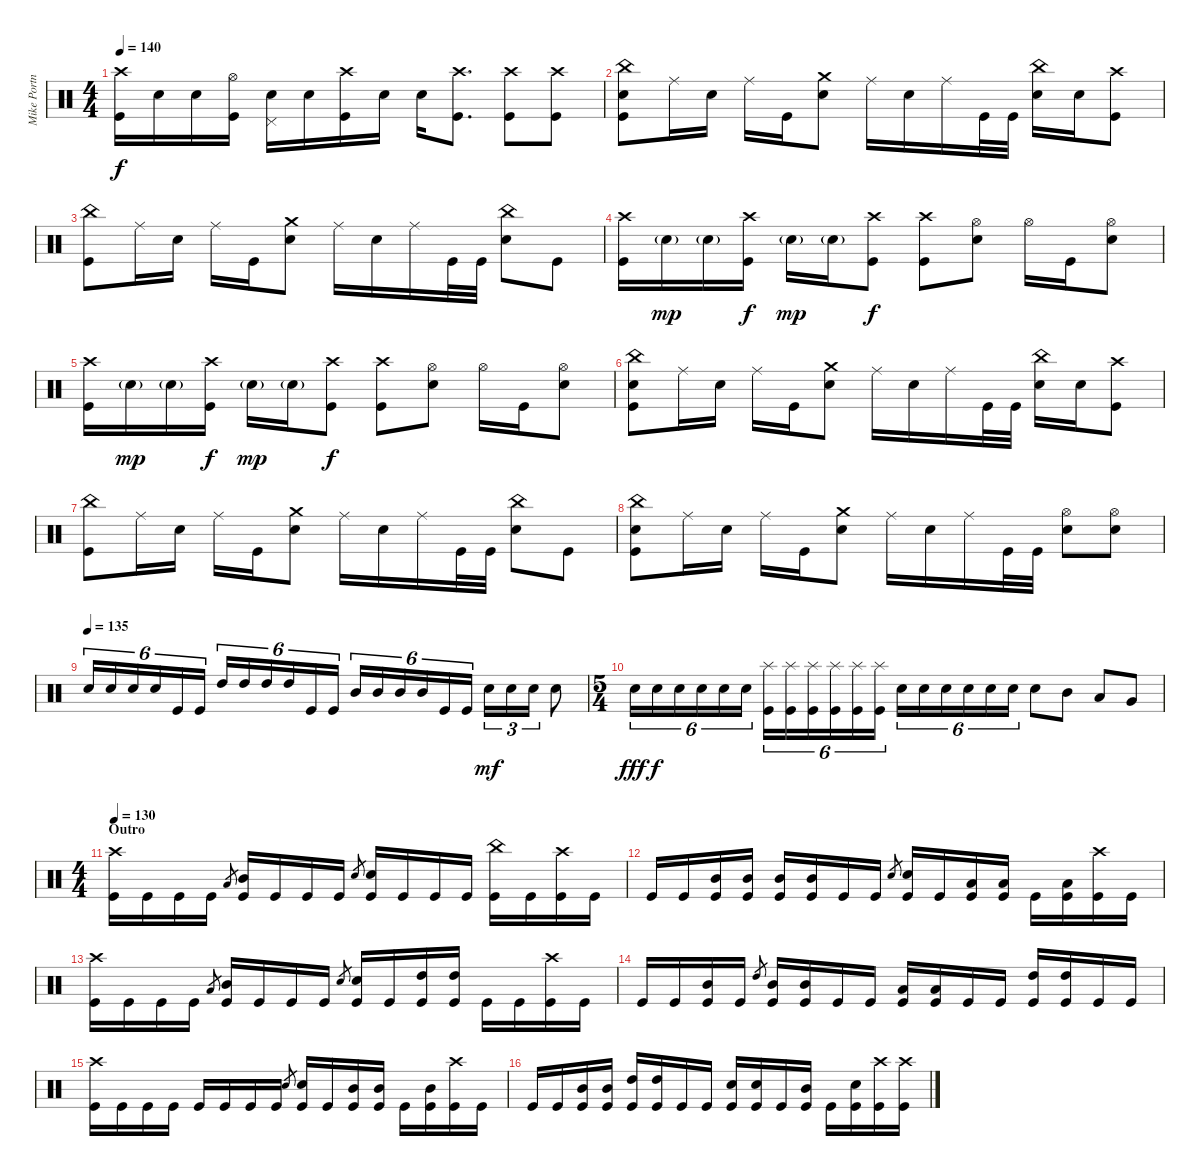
\track ("Mike Portnoy" "Mike Portn") {instrument percussion}
\staff {score}
\articulation defaults
\ts (4 4)
\tempo 140
\clef neutral
\ks c
("Crash high (hit)" "Kick (hit)").16{dy f} "Electric Snare (hit)".16 "Electric Snare (hit)".16 ("Hi-Hat (open)" "Kick (hit)").16 ("Electric Snare (hit)" "Pedal Hi-Hat (hit)").16 "Electric Snare (hit)".16 ("Crash high (hit)" "Kick (hit)").16 "Electric Snare (hit)".16 "Electric Snare (hit)".16 ("Crash high (hit)" "Kick (hit)").8{d} ("Crash high (hit)" "Kick (hit)").8 ("Crash high (hit)" "Kick (hit)").8 |
("China (hit)" "Electric Snare (hit)" "Kick (hit)").8 "Ride (middle)".16 "Electric Snare (hit)".16 "Ride (middle)".16 "Kick (hit)".16 ("Crash medium (hit)" "Electric Snare (hit)").8 "Ride (middle)".16 "Electric Snare (hit)".16 "Ride (middle)".16 "Kick (hit)".32 "Kick (hit)".32 ("China (hit)" "Electric Snare (hit)").16 "Electric Snare (hit)".16 ("Crash high (hit)" "Kick (hit)").8 |
("China (hit)" "Kick (hit)").8 "Ride (middle)".16 "Electric Snare (hit)".16 "Ride (middle)".16 "Kick (hit)".16 ("Crash medium (hit)" "Electric Snare (hit)").8 "Ride (middle)".16 "Electric Snare (hit)".16 "Ride (middle)".16 "Kick (hit)".32 "Kick (hit)".32 ("China (hit)" "Electric Snare (hit)").8 "Kick (hit)".8 |
("Crash high (hit)" "Kick (hit)").16 "Electric Snare (hit)"{g}.16{dy mp} "Electric Snare (hit)"{g}.16 ("Crash high (hit)" "Kick (hit)").16{dy f} "Electric Snare (hit)"{g}.16{dy mp} "Electric Snare (hit)"{g}.16 ("Crash high (hit)" "Kick (hit)").8{dy f} ("Crash high (hit)" "Kick (hit)").8 ("Hi-Hat (open)" "Electric Snare (hit)").8 "Hi-Hat (open)".16 "Kick (hit)".16 ("Hi-Hat (open)" "Electric Snare (hit)").8 |
("Crash high (hit)" "Kick (hit)").16 "Electric Snare (hit)"{g}.16{dy mp} "Electric Snare (hit)"{g}.16 ("Crash high (hit)" "Kick (hit)").16{dy f} "Electric Snare (hit)"{g}.16{dy mp} "Electric Snare (hit)"{g}.16 ("Crash high (hit)" "Kick (hit)").8{dy f} ("Crash high (hit)" "Kick (hit)").8 ("Hi-Hat (open)" "Electric Snare (hit)").8 "Hi-Hat (open)".16 "Kick (hit)".16 ("Hi-Hat (open)" "Electric Snare (hit)").8 |
("China (hit)" "Electric Snare (hit)" "Kick (hit)").8 "Ride (middle)".16 "Electric Snare (hit)".16 "Ride (middle)".16 "Kick (hit)".16 ("Crash medium (hit)" "Electric Snare (hit)").8 "Ride (middle)".16 "Electric Snare (hit)".16 "Ride (middle)".16 "Kick (hit)".32 "Kick (hit)".32 ("China (hit)" "Electric Snare (hit)").16 "Electric Snare (hit)".16 ("Crash high (hit)" "Kick (hit)").8 |
("China (hit)" "Kick (hit)").8 "Ride (middle)".16 "Electric Snare (hit)".16 "Ride (middle)".16 "Kick (hit)".16 ("Crash medium (hit)" "Electric Snare (hit)").8 "Ride (middle)".16 "Electric Snare (hit)".16 "Ride (middle)".16 "Kick (hit)".32 "Kick (hit)".32 ("China (hit)" "Electric Snare (hit)").8 "Kick (hit)".8 |
("China (hit)" "Electric Snare (hit)" "Kick (hit)").8 "Ride (middle)".16 "Electric Snare (hit)".16 "Ride (middle)".16 "Kick (hit)".16 ("Crash medium (hit)" "Electric Snare (hit)").8 "Ride (middle)".16 "Electric Snare (hit)".16 "Ride (middle)".16 "Kick (hit)".32 "Kick (hit)".32 ("Hi-Hat (open)" "Electric Snare (hit)").8 ("Hi-Hat (open)" "Electric Snare (hit)").8 |
\tempo (135)
"Electric Snare (hit)".16{tu (6 4)} "Electric Snare (hit)".16{tu (6 4)} "Electric Snare (hit)".16{tu (6 4)} "Electric Snare (hit)".16{tu (6 4)} "Kick (hit)".16{tu (6 4)} "Kick (hit)".16{tu (6 4)} "High Tom (hit)".16{tu (6 4)} "High Tom (hit)".16{tu (6 4)} "High Tom (hit)".16{tu (6 4)} "High Tom (hit)".16{tu (6 4)} "Kick (hit)".16{tu (6 4)} "Kick (hit)".16{tu (6 4)} "Mid Tom (hit)".16{tu (6 4)} "Mid Tom (hit)".16{tu (6 4)} "Mid Tom (hit)".16{tu (6 4)} "Mid Tom (hit)".16{tu (6 4)} "Kick (hit)".16{tu (6 4)} "Kick (hit)".16{tu (6 4)} "Electric Snare (hit)".16{tu (3 2) dy mf} "Electric Snare (hit)".16{tu (3 2)} "Electric Snare (hit)".16{tu (3 2)} "Electric Snare (hit)".8 |
\ts (5 4)
"Electric Snare (hit)".16{tu (6 4) dy fff} "Electric Snare (hit)".16{tu (6 4) dy f} "Electric Snare (hit)".16{tu (6 4)} "Electric Snare (hit)".16{tu (6 4)} "Electric Snare (hit)".16{tu (6 4)} "Electric Snare (hit)".16{tu (6 4)} ("Splash (hit)" "Kick (hit)").16{tu (6 4)} ("Splash (hit)" "Kick (hit)").16{tu (6 4)} ("Splash (hit)" "Kick (hit)").16{tu (6 4)} ("Splash (hit)" "Kick (hit)").16{tu (6 4)} ("Splash (hit)" "Kick (hit)").16{tu (6 4)} ("Splash (hit)" "Kick (hit)").16{tu (6 4)} "Electric Snare (hit)".16{tu (6 4)} "Electric Snare (hit)".16{tu (6 4)} "Electric Snare (hit)".16{tu (6 4)} "Electric Snare (hit)".16{tu (6 4)} "Electric Snare (hit)".16{tu (6 4)} "Electric Snare (hit)".16{tu (6 4)} "Electric Snare (hit)".8 "Mid Tom (hit)".8 "Low Tom (hit)".8 "Very Low Tom (hit)".8 |
\ts (4 4)
\section ("" "Outro")
\tempo 130
("Crash high (hit)" "Kick (hit)").16 "Kick (hit)".16 "Kick (hit)".16 "Kick (hit)".16 "Low Tom (hit)".8{gr} ("Mid Tom (hit)" "Kick (hit)").16 "Kick (hit)".16 "Kick (hit)".16 "Kick (hit)".16 "Electric Snare (hit)".8{gr} ("Electric Snare (hit)" "Kick (hit)").16 "Kick (hit)".16 "Kick (hit)".16 "Kick (hit)".16 ("China (hit)" "Kick (hit)").16 "Kick (hit)".16 ("Crash high (hit)" "Kick (hit)").16 "Kick (hit)".16 |
"Kick (hit)".16 "Kick (hit)".16 ("Mid Tom (hit)" "Kick (hit)").16 ("Mid Tom (hit)" "Kick (hit)").16 ("Mid Tom (hit)" "Kick (hit)").16 ("Mid Tom (hit)" "Kick (hit)").16 "Kick (hit)".16 "Kick (hit)".16 "Electric Snare (hit)".8{gr} ("Electric Snare (hit)" "Kick (hit)").16 "Kick (hit)".16 ("Low Tom (hit)" "Kick (hit)").16 ("Low Tom (hit)" "Kick (hit)").16 "Kick (hit)".16 ("Low Tom (hit)" "Kick (hit)").16 ("Crash high (hit)" "Kick (hit)").16 "Kick (hit)".16 |
("Crash high (hit)" "Kick (hit)").16 "Kick (hit)".16 "Kick (hit)".16 "Kick (hit)".16 "Low Tom (hit)".8{gr} ("Mid Tom (hit)" "Kick (hit)").16 "Kick (hit)".16 "Kick (hit)".16 "Kick (hit)".16 "Electric Snare (hit)".8{gr} ("Electric Snare (hit)" "Kick (hit)").16 "Kick (hit)".16 ("High Tom (hit)" "Kick (hit)").16 ("High Tom (hit)" "Kick (hit)").16 "Kick (hit)".16 "Kick (hit)".16 ("Crash high (hit)" "Kick (hit)").16 "Kick (hit)".16 |
"Kick (hit)".16 "Kick (hit)".16 ("Mid Tom (hit)" "Kick (hit)").16 "Kick (hit)".16 "High Tom (hit)".8{gr} ("Mid Tom (hit)" "Kick (hit)").16 ("Mid Tom (hit)" "Kick (hit)").16 "Kick (hit)".16 "Kick (hit)".16 ("Low Tom (hit)" "Kick (hit)").16 ("Low Tom (hit)" "Kick (hit)").16 "Kick (hit)".16 "Kick (hit)".16 ("High Tom (hit)" "Kick (hit)").16 ("High Tom (hit)" "Kick (hit)").16 "Kick (hit)".16 "Kick (hit)".16 |
("Crash high (hit)" "Kick (hit)").16 "Kick (hit)".16 "Kick (hit)".16 "Kick (hit)".16 "Kick (hit)".16 "Kick (hit)".16 "Kick (hit)".16 "Kick (hit)".16 "Electric Snare (hit)".8{gr} ("Electric Snare (hit)" "Kick (hit)").16 "Kick (hit)".16 ("Mid Tom (hit)" "Kick (hit)").16 ("Mid Tom (hit)" "Kick (hit)").16 "Kick (hit)".16 ("Mid Tom (hit)" "Kick (hit)").16 ("Crash high (hit)" "Kick (hit)").16 "Kick (hit)".16 |
"Kick (hit)".16 "Kick (hit)".16 ("Mid Tom (hit)" "Kick (hit)").16 ("Mid Tom (hit)" "Kick (hit)").16 ("High Tom (hit)" "Kick (hit)").16 ("High Tom (hit)" "Kick (hit)").16 "Kick (hit)".16 "Kick (hit)".16 ("Electric Snare (hit)" "Kick (hit)").16 ("Electric Snare (hit)" "Kick (hit)").16 "Kick (hit)".16 ("Mid Tom (hit)" "Kick (hit)").16 "Kick (hit)".16 ("Electric Snare (hit)" "Kick (hit)").16 ("Crash high (hit)" "Kick (hit)").16 ("Crash high (hit)" "Kick (hit)").16
